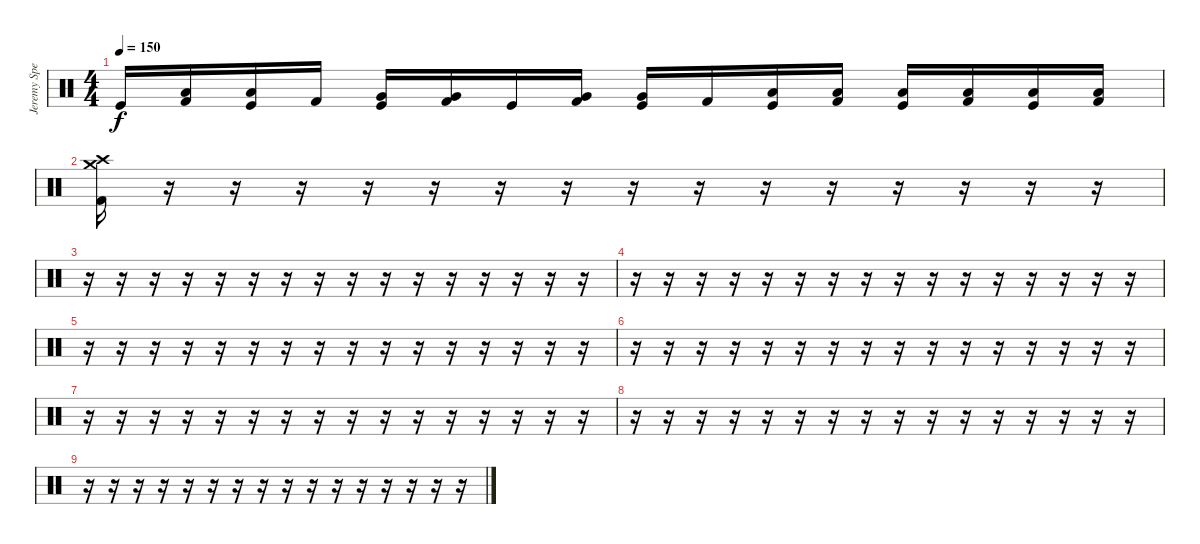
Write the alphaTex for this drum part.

\track ("Jeremy Spencer" "Jeremy Spe") {instrument percussion}
\staff {score}
\articulation defaults
\ts (4 4)
\tempo 150
\clef neutral
\ks c "Kick (hit)".16{dy f}
("Low Tom (hit)" "Kick (hit) 2").16 ("Low Tom (hit)" "Kick (hit)").16 "Kick (hit) 2".16 ("Very Low Tom (hit)" "Kick (hit)").16 ("Very Low Tom (hit)" "Kick (hit) 2").16 "Kick (hit)".16 ("Very Low Tom (hit)" "Kick (hit) 2").16 ("Very Low Tom (hit)" "Kick (hit)").16 "Kick (hit) 2".16 ("Low Floor Tom (hit)" "Kick (hit)").16 ("Low Floor Tom (hit)" "Kick (hit) 2").16 ("Low Floor Tom (hit)" "Kick (hit)").16 ("Low Floor Tom (hit)" "Kick (hit) 2").16 ("Low Floor Tom (hit)" "Kick (hit)").16 ("Low Floor Tom (hit)" "Kick (hit) 2").16 |
("Crash medium (hit)" "Crash high (hit)" "Kick (hit) 2").16 r.16 r.16 r.16 r.16 r.16 r.16 r.16 r.16 r.16 r.16 r.16 r.16 r.16 r.16 r.16 |
r.16 r.16 r.16 r.16 r.16 r.16 r.16 r.16 r.16 r.16 r.16 r.16 r.16 r.16 r.16 r.16 |
r.16 r.16 r.16 r.16 r.16 r.16 r.16 r.16 r.16 r.16 r.16 r.16 r.16 r.16 r.16 r.16 |
r.16 r.16 r.16 r.16 r.16 r.16 r.16 r.16 r.16 r.16 r.16 r.16 r.16 r.16 r.16 r.16 |
r.16 r.16 r.16 r.16 r.16 r.16 r.16 r.16 r.16 r.16 r.16 r.16 r.16 r.16 r.16 r.16 |
r.16 r.16 r.16 r.16 r.16 r.16 r.16 r.16 r.16 r.16 r.16 r.16 r.16 r.16 r.16 r.16 |
r.16 r.16 r.16 r.16 r.16 r.16 r.16 r.16 r.16 r.16 r.16 r.16 r.16 r.16 r.16 r.16 |
r.16 r.16 r.16 r.16 r.16 r.16 r.16 r.16 r.16 r.16 r.16 r.16 r.16 r.16 r.16 r.16
